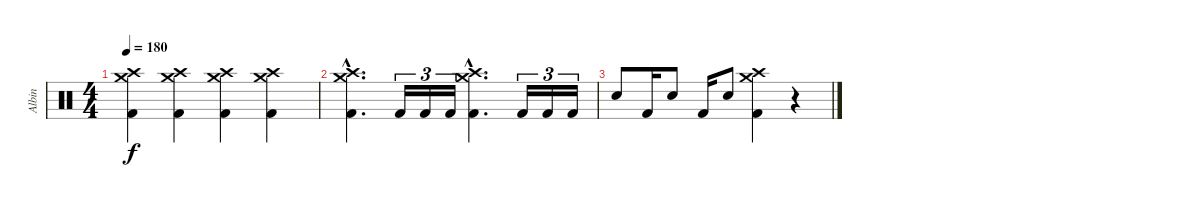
\track ("Albin" "Albin") {instrument percussion}
\staff {score}
\articulation defaults
\ts (4 4)
\tempo 180
\clef neutral
\ks c
("Kick (hit) 2" "Crash high (hit)" "Crash medium (hit)").4{dy f} ("Kick (hit) 2" "Crash high (hit)" "Crash medium (hit)").4 ("Kick (hit) 2" "Crash high (hit)" "Crash medium (hit)").4 ("Kick (hit) 2" "Crash high (hit)" "Crash medium (hit)").4 |
("Kick (hit) 2"{hac} "Crash high (hit)"{hac} "Crash medium (hit)"{hac}).4{d} "Kick (hit) 2".16{tu (3 2)} "Kick (hit) 2".16{tu (3 2)} "Kick (hit) 2".16{tu (3 2)} ("Kick (hit) 2"{hac} "Crash high (hit)"{hac} "Crash medium (hit)"{hac}).4{d} "Kick (hit) 2".16{tu (3 2)} "Kick (hit) 2".16{tu (3 2)} "Kick (hit) 2".16{tu (3 2)} |
"Electric Snare (hit)".8 "Kick (hit) 2".16 "Electric Snare (hit)".8 "Kick (hit) 2".16 "Electric Snare (hit)".8 ("Kick (hit) 2" "Crash high (hit)" "Crash medium (hit)").4 r.4
